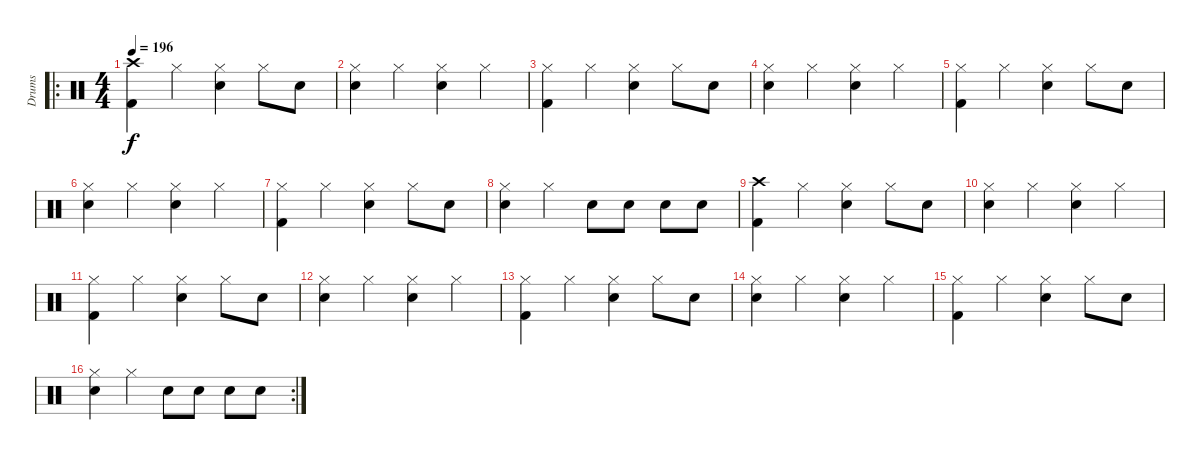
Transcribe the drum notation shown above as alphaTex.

\track ("Drums" "Drums") {instrument percussion}
\staff {score}
\articulation defaults
\ro
\ts (4 4)
\tempo 196
\clef neutral
\ks c
("Crash high (hit)" "Kick (hit) 2").4{dy f} "Hi-Hat (closed)".4 ("Hi-Hat (closed)" "Snare (hit) 2").4 "Hi-Hat (closed)".8 "Snare (hit) 2".8 |
("Hi-Hat (closed)" "Snare (hit) 2").4 "Hi-Hat (closed)".4 ("Hi-Hat (closed)" "Snare (hit) 2").4 "Hi-Hat (closed)".4 |
("Hi-Hat (closed)" "Kick (hit) 2").4 "Hi-Hat (closed)".4 ("Hi-Hat (closed)" "Snare (hit) 2").4 "Hi-Hat (closed)".8 "Snare (hit) 2".8 |
("Hi-Hat (closed)" "Snare (hit) 2").4 "Hi-Hat (closed)".4 ("Hi-Hat (closed)" "Snare (hit) 2").4 "Hi-Hat (closed)".4 |
("Hi-Hat (closed)" "Kick (hit) 2").4 "Hi-Hat (closed)".4 ("Hi-Hat (closed)" "Snare (hit) 2").4 "Hi-Hat (closed)".8 "Snare (hit) 2".8 |
("Hi-Hat (closed)" "Snare (hit) 2").4 "Hi-Hat (closed)".4 ("Hi-Hat (closed)" "Snare (hit) 2").4 "Hi-Hat (closed)".4 |
("Hi-Hat (closed)" "Kick (hit) 2").4 "Hi-Hat (closed)".4 ("Hi-Hat (closed)" "Snare (hit) 2").4 "Hi-Hat (closed)".8 "Snare (hit) 2".8 |
("Hi-Hat (closed)" "Snare (hit) 2").4 "Hi-Hat (closed)".4 "Snare (hit) 2".8 "Snare (hit) 2".8 "Snare (hit) 2".8 "Snare (hit) 2".8 |
("Crash high (hit)" "Kick (hit) 2").4 "Hi-Hat (closed)".4 ("Hi-Hat (closed)" "Snare (hit) 2").4 "Hi-Hat (closed)".8 "Snare (hit) 2".8 |
("Hi-Hat (closed)" "Snare (hit) 2").4 "Hi-Hat (closed)".4 ("Hi-Hat (closed)" "Snare (hit) 2").4 "Hi-Hat (closed)".4 |
("Hi-Hat (closed)" "Kick (hit) 2").4 "Hi-Hat (closed)".4 ("Hi-Hat (closed)" "Snare (hit) 2").4 "Hi-Hat (closed)".8 "Snare (hit) 2".8 |
("Hi-Hat (closed)" "Snare (hit) 2").4 "Hi-Hat (closed)".4 ("Hi-Hat (closed)" "Snare (hit) 2").4 "Hi-Hat (closed)".4 |
("Hi-Hat (closed)" "Kick (hit) 2").4 "Hi-Hat (closed)".4 ("Hi-Hat (closed)" "Snare (hit) 2").4 "Hi-Hat (closed)".8 "Snare (hit) 2".8 |
("Hi-Hat (closed)" "Snare (hit) 2").4 "Hi-Hat (closed)".4 ("Hi-Hat (closed)" "Snare (hit) 2").4 "Hi-Hat (closed)".4 |
("Hi-Hat (closed)" "Kick (hit) 2").4 "Hi-Hat (closed)".4 ("Hi-Hat (closed)" "Snare (hit) 2").4 "Hi-Hat (closed)".8 "Snare (hit) 2".8 |
\rc 2
("Hi-Hat (closed)" "Snare (hit) 2").4 "Hi-Hat (closed)".4 "Snare (hit) 2".8 "Snare (hit) 2".8 "Snare (hit) 2".8 "Snare (hit) 2".8
